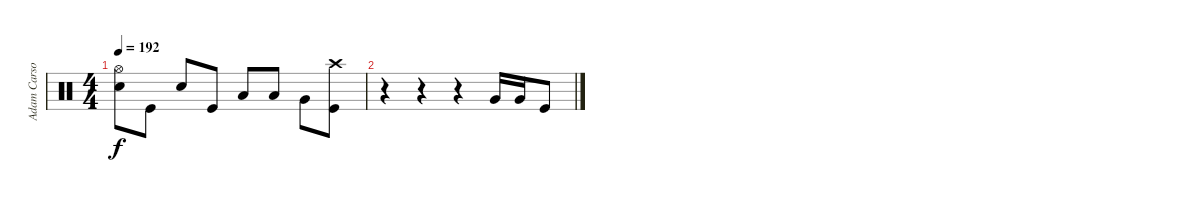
\track ("Adam Carson" "Adam Carso") {instrument percussion}
\staff {score}
\articulation defaults
\ts (4 4)
\tempo 192
\clef neutral
\ks c
("Hi-Hat (open)" "Electric Snare (hit)").8{dy f} "Kick (hit)".8 "Electric Snare (hit)".8 "Kick (hit)".8 "Low Tom (hit)".8 "Low Tom (hit)".8 "Very Low Tom (hit)".8 ("Crash high (hit)" "Kick (hit)").8 |
r.4 r.4 r.4 "Very Low Tom (hit)".16 "Very Low Tom (hit)".16 "Kick (hit)".8
